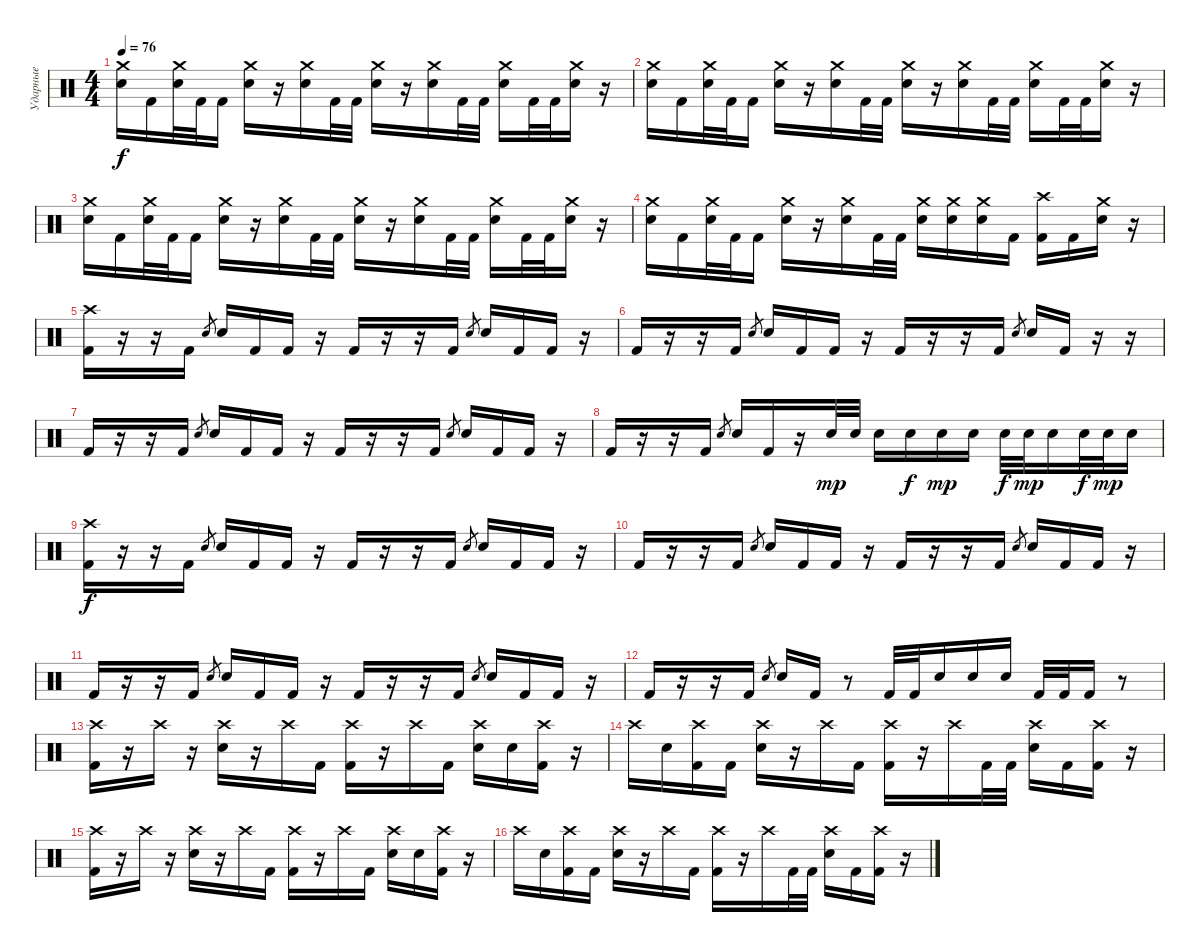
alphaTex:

\track ("Ударные" "Ударные") {instrument percussion}
\staff {score}
\articulation defaults
\ts (4 4)
\tempo 76
\clef neutral
\ks c
("Crash medium (hit)" "Electric Snare (hit)").16{dy f} "Kick (hit) 2".16 ("Crash medium (hit)" "Electric Snare (hit)").32 "Kick (hit) 2".32 "Kick (hit) 2".16 ("Crash medium (hit)" "Electric Snare (hit)").16 r.16 ("Crash medium (hit)" "Electric Snare (hit)").16 "Kick (hit) 2".32 "Kick (hit) 2".32 ("Crash medium (hit)" "Electric Snare (hit)").16 r.16 ("Crash medium (hit)" "Electric Snare (hit)").16 "Kick (hit) 2".32 "Kick (hit) 2".32 ("Crash medium (hit)" "Electric Snare (hit)").16 "Kick (hit) 2".32 "Kick (hit) 2".32 ("Crash medium (hit)" "Electric Snare (hit)").16 r.16 |
("Crash medium (hit)" "Electric Snare (hit)").16 "Kick (hit) 2".16 ("Crash medium (hit)" "Electric Snare (hit)").32 "Kick (hit) 2".32 "Kick (hit) 2".16 ("Crash medium (hit)" "Electric Snare (hit)").16 r.16 ("Crash medium (hit)" "Electric Snare (hit)").16 "Kick (hit) 2".32 "Kick (hit) 2".32 ("Crash medium (hit)" "Electric Snare (hit)").16 r.16 ("Crash medium (hit)" "Electric Snare (hit)").16 "Kick (hit) 2".32 "Kick (hit) 2".32 ("Crash medium (hit)" "Electric Snare (hit)").16 "Kick (hit) 2".32 "Kick (hit) 2".32 ("Crash medium (hit)" "Electric Snare (hit)").16 r.16 |
("Crash medium (hit)" "Electric Snare (hit)").16 "Kick (hit) 2".16 ("Crash medium (hit)" "Electric Snare (hit)").32 "Kick (hit) 2".32 "Kick (hit) 2".16 ("Crash medium (hit)" "Electric Snare (hit)").16 r.16 ("Crash medium (hit)" "Electric Snare (hit)").16 "Kick (hit) 2".32 "Kick (hit) 2".32 ("Crash medium (hit)" "Electric Snare (hit)").16 r.16 ("Crash medium (hit)" "Electric Snare (hit)").16 "Kick (hit) 2".32 "Kick (hit) 2".32 ("Crash medium (hit)" "Electric Snare (hit)").16 "Kick (hit) 2".32 "Kick (hit) 2".32 ("Crash medium (hit)" "Electric Snare (hit)").16 r.16 |
("Crash medium (hit)" "Electric Snare (hit)").16 "Kick (hit) 2".16 ("Crash medium (hit)" "Electric Snare (hit)").32 "Kick (hit) 2".32 "Kick (hit) 2".16 ("Crash medium (hit)" "Electric Snare (hit)").16 r.16 ("Crash medium (hit)" "Electric Snare (hit)").16 "Kick (hit) 2".32 "Kick (hit) 2".32 ("Crash medium (hit)" "Electric Snare (hit)").16 ("Crash medium (hit)" "Electric Snare (hit)").16 ("Crash medium (hit)" "Electric Snare (hit)").16 "Kick (hit) 2".16 ("Crash high (hit)" "Kick (hit) 2").16 "Kick (hit) 2".16 ("Crash medium (hit)" "Electric Snare (hit)").16 r.16 |
("Crash high (hit)" "Kick (hit) 2").16 r.16 r.16 "Kick (hit) 2".16 "Electric Snare (hit)"{h}.8{gr} "Electric Snare (hit)".16 "Kick (hit) 2".16 "Kick (hit) 2".16 r.16 "Kick (hit) 2".16 r.16 r.16 "Kick (hit) 2".16 "Electric Snare (hit)"{h}.8{gr} "Electric Snare (hit)".16 "Kick (hit) 2".16 "Kick (hit) 2".16 r.16 |
"Kick (hit) 2".16 r.16 r.16 "Kick (hit) 2".16 "Electric Snare (hit)"{h}.8{gr} "Electric Snare (hit)".16 "Kick (hit) 2".16 "Kick (hit) 2".16 r.16 "Kick (hit) 2".16 r.16 r.16 "Kick (hit) 2".16 "Electric Snare (hit)"{h}.8{gr} "Electric Snare (hit)".16 "Kick (hit) 2".16 r.16 r.16 |
"Kick (hit) 2".16 r.16 r.16 "Kick (hit) 2".16 "Electric Snare (hit)"{h}.8{gr} "Electric Snare (hit)".16 "Kick (hit) 2".16 "Kick (hit) 2".16 r.16 "Kick (hit) 2".16 r.16 r.16 "Kick (hit) 2".16 "Electric Snare (hit)"{h}.8{gr} "Electric Snare (hit)".16 "Kick (hit) 2".16 "Kick (hit) 2".16 r.16 |
"Kick (hit) 2".16 r.16 r.16 "Kick (hit) 2".16 "Electric Snare (hit)"{h}.8{gr} "Electric Snare (hit)".16 "Kick (hit) 2".16 r.16 "Electric Snare (hit)".32{dy mp} "Electric Snare (hit)".32 "Electric Snare (hit)".16 "Electric Snare (hit)".16{dy f} "Electric Snare (hit)".16{dy mp} "Electric Snare (hit)".16 "Electric Snare (hit)".32{dy f} "Electric Snare (hit)".32{dy mp} "Electric Snare (hit)".16 "Electric Snare (hit)".32{dy f} "Electric Snare (hit)".32{dy mp} "Electric Snare (hit)".16 |
("Crash high (hit)" "Kick (hit) 2").16{dy f} r.16 r.16 "Kick (hit) 2".16 "Electric Snare (hit)"{h}.8{gr} "Electric Snare (hit)".16 "Kick (hit) 2".16 "Kick (hit) 2".16 r.16 "Kick (hit) 2".16 r.16 r.16 "Kick (hit) 2".16 "Electric Snare (hit)"{h}.8{gr} "Electric Snare (hit)".16 "Kick (hit) 2".16 "Kick (hit) 2".16 r.16 |
"Kick (hit) 2".16 r.16 r.16 "Kick (hit) 2".16 "Electric Snare (hit)"{h}.8{gr} "Electric Snare (hit)".16 "Kick (hit) 2".16 "Kick (hit) 2".16 r.16 "Kick (hit) 2".16 r.16 r.16 "Kick (hit) 2".16 "Electric Snare (hit)"{h}.8{gr} "Electric Snare (hit)".16 "Kick (hit) 2".16 "Kick (hit) 2".16 r.16 |
"Kick (hit) 2".16 r.16 r.16 "Kick (hit) 2".16 "Electric Snare (hit)"{h}.8{gr} "Electric Snare (hit)".16 "Kick (hit) 2".16 "Kick (hit) 2".16 r.16 "Kick (hit) 2".16 r.16 r.16 "Kick (hit) 2".16 "Electric Snare (hit)"{h}.8{gr} "Electric Snare (hit)".16 "Kick (hit) 2".16 "Kick (hit) 2".16 r.16 |
"Kick (hit) 2".16 r.16 r.16 "Kick (hit) 2".16 "Electric Snare (hit)"{h}.8{gr} "Electric Snare (hit)".16 "Kick (hit) 2".16 r.8 "Kick (hit) 2".32 "Kick (hit) 2".32 "Electric Snare (hit)".16 "Electric Snare (hit)".16 "Electric Snare (hit)".16 "Kick (hit) 2".32 "Kick (hit) 2".32 "Kick (hit) 2".16 r.8 |
("Crash high (hit)" "Kick (hit) 2").16 r.16 "Crash high (hit)".16 r.16 ("Crash high (hit)" "Electric Snare (hit)").16 r.16 "Crash high (hit)".16 "Kick (hit) 2".16 ("Crash high (hit)" "Kick (hit) 2").16 r.16 "Crash high (hit)".16 "Kick (hit) 2".16 ("Crash high (hit)" "Electric Snare (hit)").16 "Electric Snare (hit)".16 ("Crash high (hit)" "Kick (hit) 2").16 r.16 |
"Crash high (hit)".16 "Electric Snare (hit)".16 ("Crash high (hit)" "Kick (hit) 2").16 "Kick (hit) 2".16 ("Crash high (hit)" "Electric Snare (hit)").16 r.16 "Crash high (hit)".16 "Kick (hit) 2".16 ("Crash high (hit)" "Kick (hit) 2").16 r.16 "Crash high (hit)".16 "Kick (hit) 2".32 "Kick (hit) 2".32 ("Crash high (hit)" "Electric Snare (hit)").16 "Kick (hit) 2".16 ("Crash high (hit)" "Kick (hit) 2").16 r.16 |
("Crash high (hit)" "Kick (hit) 2").16 r.16 "Crash high (hit)".16 r.16 ("Crash high (hit)" "Electric Snare (hit)").16 r.16 "Crash high (hit)".16 "Kick (hit) 2".16 ("Crash high (hit)" "Kick (hit) 2").16 r.16 "Crash high (hit)".16 "Kick (hit) 2".16 ("Crash high (hit)" "Electric Snare (hit)").16 "Electric Snare (hit)".16 ("Crash high (hit)" "Kick (hit) 2").16 r.16 |
"Crash high (hit)".16 "Electric Snare (hit)".16 ("Crash high (hit)" "Kick (hit) 2").16 "Kick (hit) 2".16 ("Crash high (hit)" "Electric Snare (hit)").16 r.16 "Crash high (hit)".16 "Kick (hit) 2".16 ("Crash high (hit)" "Kick (hit) 2").16 r.16 "Crash high (hit)".16 "Kick (hit) 2".32 "Kick (hit) 2".32 ("Crash high (hit)" "Electric Snare (hit)").16 "Kick (hit) 2".16 ("Crash high (hit)" "Kick (hit) 2").16 r.16
